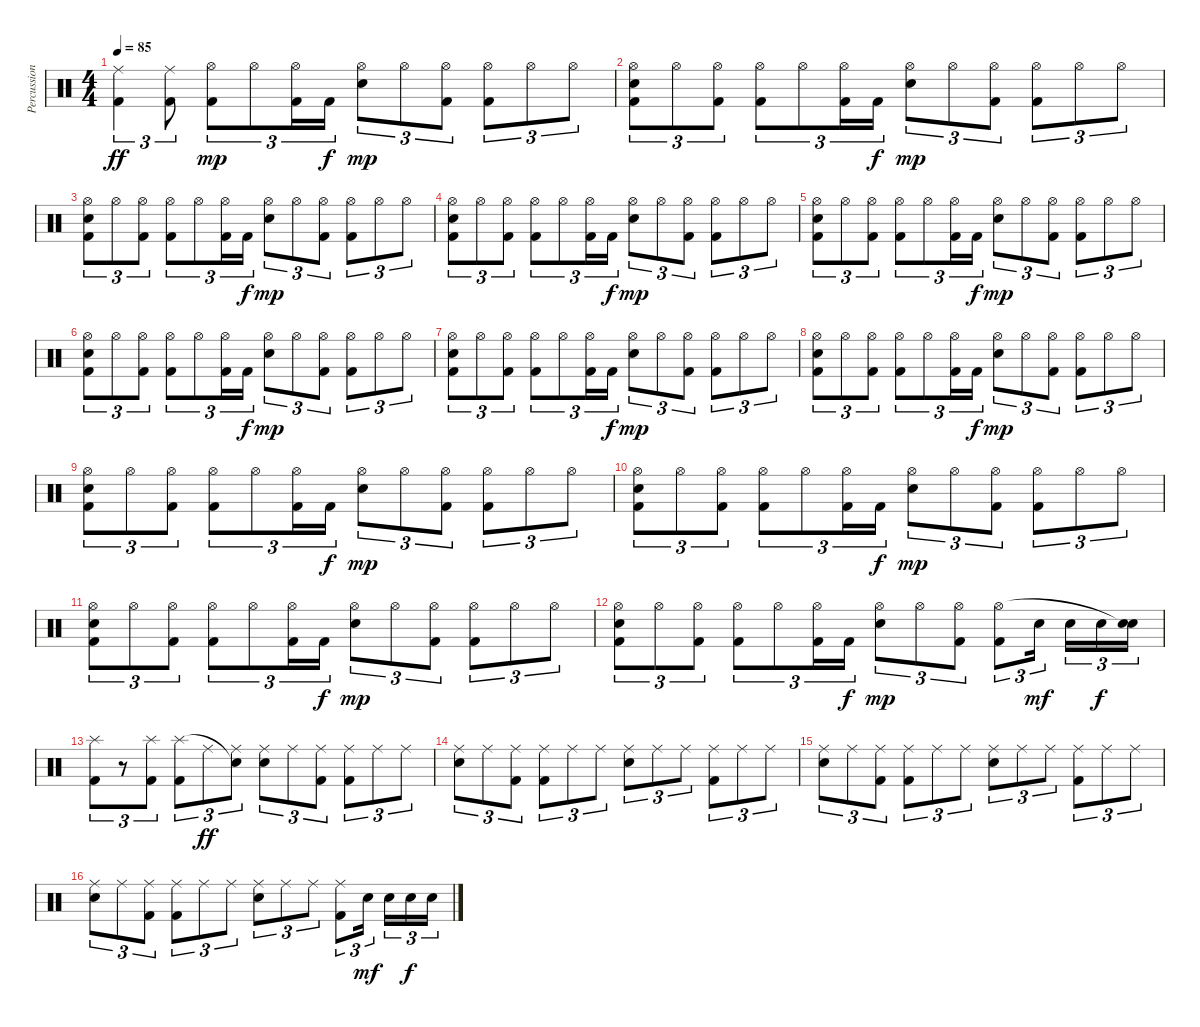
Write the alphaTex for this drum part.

\track ("Percussioni" "Percussion") {instrument percussion}
\staff {score}
\articulation defaults
\ts (4 4)
\tempo 85
\clef neutral
\ks c
("Kick (hit) 2" "Ride (middle)").4{tu (3 2) dy ff} ("Kick (hit) 2" "Ride (middle)").8{tu (3 2)} ("Kick (hit) 2" "Hi-Hat (open)").8{tu (3 2) dy mp} "Hi-Hat (open)".8{tu (3 2)} ("Kick (hit) 2" "Hi-Hat (open)").16{tu (3 2)} "Kick (hit) 2".16{tu (3 2) dy f} ("Snare (hit) 2" "Hi-Hat (open)").8{tu (3 2) dy mp} "Hi-Hat (open)".8{tu (3 2)} ("Kick (hit) 2" "Hi-Hat (open)").8{tu (3 2)} ("Kick (hit) 2" "Hi-Hat (open)").8{tu (3 2)} "Hi-Hat (open)".8{tu (3 2)} "Hi-Hat (open)".8{tu (3 2)} |
("Kick (hit) 2" "Snare (hit) 2" "Hi-Hat (open)").8{tu (3 2)} "Hi-Hat (open)".8{tu (3 2)} ("Kick (hit) 2" "Hi-Hat (open)").8{tu (3 2)} ("Kick (hit) 2" "Hi-Hat (open)").8{tu (3 2)} "Hi-Hat (open)".8{tu (3 2)} ("Kick (hit) 2" "Hi-Hat (open)").16{tu (3 2)} "Kick (hit) 2".16{tu (3 2) dy f} ("Snare (hit) 2" "Hi-Hat (open)").8{tu (3 2) dy mp} "Hi-Hat (open)".8{tu (3 2)} ("Kick (hit) 2" "Hi-Hat (open)").8{tu (3 2)} ("Kick (hit) 2" "Hi-Hat (open)").8{tu (3 2)} "Hi-Hat (open)".8{tu (3 2)} "Hi-Hat (open)".8{tu (3 2)} |
("Kick (hit) 2" "Snare (hit) 2" "Hi-Hat (open)").8{tu (3 2)} "Hi-Hat (open)".8{tu (3 2)} ("Kick (hit) 2" "Hi-Hat (open)").8{tu (3 2)} ("Kick (hit) 2" "Hi-Hat (open)").8{tu (3 2)} "Hi-Hat (open)".8{tu (3 2)} ("Kick (hit) 2" "Hi-Hat (open)").16{tu (3 2)} "Kick (hit) 2".16{tu (3 2) dy f} ("Snare (hit) 2" "Hi-Hat (open)").8{tu (3 2) dy mp} "Hi-Hat (open)".8{tu (3 2)} ("Kick (hit) 2" "Hi-Hat (open)").8{tu (3 2)} ("Kick (hit) 2" "Hi-Hat (open)").8{tu (3 2)} "Hi-Hat (open)".8{tu (3 2)} "Hi-Hat (open)".8{tu (3 2)} |
("Kick (hit) 2" "Snare (hit) 2" "Hi-Hat (open)").8{tu (3 2)} "Hi-Hat (open)".8{tu (3 2)} ("Kick (hit) 2" "Hi-Hat (open)").8{tu (3 2)} ("Kick (hit) 2" "Hi-Hat (open)").8{tu (3 2)} "Hi-Hat (open)".8{tu (3 2)} ("Kick (hit) 2" "Hi-Hat (open)").16{tu (3 2)} "Kick (hit) 2".16{tu (3 2) dy f} ("Snare (hit) 2" "Hi-Hat (open)").8{tu (3 2) dy mp} "Hi-Hat (open)".8{tu (3 2)} ("Kick (hit) 2" "Hi-Hat (open)").8{tu (3 2)} ("Kick (hit) 2" "Hi-Hat (open)").8{tu (3 2)} "Hi-Hat (open)".8{tu (3 2)} "Hi-Hat (open)".8{tu (3 2)} |
("Kick (hit) 2" "Snare (hit) 2" "Hi-Hat (open)").8{tu (3 2)} "Hi-Hat (open)".8{tu (3 2)} ("Kick (hit) 2" "Hi-Hat (open)").8{tu (3 2)} ("Kick (hit) 2" "Hi-Hat (open)").8{tu (3 2)} "Hi-Hat (open)".8{tu (3 2)} ("Kick (hit) 2" "Hi-Hat (open)").16{tu (3 2)} "Kick (hit) 2".16{tu (3 2) dy f} ("Snare (hit) 2" "Hi-Hat (open)").8{tu (3 2) dy mp} "Hi-Hat (open)".8{tu (3 2)} ("Kick (hit) 2" "Hi-Hat (open)").8{tu (3 2)} ("Kick (hit) 2" "Hi-Hat (open)").8{tu (3 2)} "Hi-Hat (open)".8{tu (3 2)} "Hi-Hat (open)".8{tu (3 2)} |
("Kick (hit) 2" "Snare (hit) 2" "Hi-Hat (open)").8{tu (3 2)} "Hi-Hat (open)".8{tu (3 2)} ("Kick (hit) 2" "Hi-Hat (open)").8{tu (3 2)} ("Kick (hit) 2" "Hi-Hat (open)").8{tu (3 2)} "Hi-Hat (open)".8{tu (3 2)} ("Kick (hit) 2" "Hi-Hat (open)").16{tu (3 2)} "Kick (hit) 2".16{tu (3 2) dy f} ("Snare (hit) 2" "Hi-Hat (open)").8{tu (3 2) dy mp} "Hi-Hat (open)".8{tu (3 2)} ("Kick (hit) 2" "Hi-Hat (open)").8{tu (3 2)} ("Kick (hit) 2" "Hi-Hat (open)").8{tu (3 2)} "Hi-Hat (open)".8{tu (3 2)} "Hi-Hat (open)".8{tu (3 2)} |
("Kick (hit) 2" "Snare (hit) 2" "Hi-Hat (open)").8{tu (3 2)} "Hi-Hat (open)".8{tu (3 2)} ("Kick (hit) 2" "Hi-Hat (open)").8{tu (3 2)} ("Kick (hit) 2" "Hi-Hat (open)").8{tu (3 2)} "Hi-Hat (open)".8{tu (3 2)} ("Kick (hit) 2" "Hi-Hat (open)").16{tu (3 2)} "Kick (hit) 2".16{tu (3 2) dy f} ("Snare (hit) 2" "Hi-Hat (open)").8{tu (3 2) dy mp} "Hi-Hat (open)".8{tu (3 2)} ("Kick (hit) 2" "Hi-Hat (open)").8{tu (3 2)} ("Kick (hit) 2" "Hi-Hat (open)").8{tu (3 2)} "Hi-Hat (open)".8{tu (3 2)} "Hi-Hat (open)".8{tu (3 2)} |
("Kick (hit) 2" "Snare (hit) 2" "Hi-Hat (open)").8{tu (3 2)} "Hi-Hat (open)".8{tu (3 2)} ("Kick (hit) 2" "Hi-Hat (open)").8{tu (3 2)} ("Kick (hit) 2" "Hi-Hat (open)").8{tu (3 2)} "Hi-Hat (open)".8{tu (3 2)} ("Kick (hit) 2" "Hi-Hat (open)").16{tu (3 2)} "Kick (hit) 2".16{tu (3 2) dy f} ("Snare (hit) 2" "Hi-Hat (open)").8{tu (3 2) dy mp} "Hi-Hat (open)".8{tu (3 2)} ("Kick (hit) 2" "Hi-Hat (open)").8{tu (3 2)} ("Kick (hit) 2" "Hi-Hat (open)").8{tu (3 2)} "Hi-Hat (open)".8{tu (3 2)} "Hi-Hat (open)".8{tu (3 2)} |
("Kick (hit) 2" "Snare (hit) 2" "Hi-Hat (open)").8{tu (3 2)} "Hi-Hat (open)".8{tu (3 2)} ("Kick (hit) 2" "Hi-Hat (open)").8{tu (3 2)} ("Kick (hit) 2" "Hi-Hat (open)").8{tu (3 2)} "Hi-Hat (open)".8{tu (3 2)} ("Kick (hit) 2" "Hi-Hat (open)").16{tu (3 2)} "Kick (hit) 2".16{tu (3 2) dy f} ("Snare (hit) 2" "Hi-Hat (open)").8{tu (3 2) dy mp} "Hi-Hat (open)".8{tu (3 2)} ("Kick (hit) 2" "Hi-Hat (open)").8{tu (3 2)} ("Kick (hit) 2" "Hi-Hat (open)").8{tu (3 2)} "Hi-Hat (open)".8{tu (3 2)} "Hi-Hat (open)".8{tu (3 2)} |
("Kick (hit) 2" "Snare (hit) 2" "Hi-Hat (open)").8{tu (3 2)} "Hi-Hat (open)".8{tu (3 2)} ("Kick (hit) 2" "Hi-Hat (open)").8{tu (3 2)} ("Kick (hit) 2" "Hi-Hat (open)").8{tu (3 2)} "Hi-Hat (open)".8{tu (3 2)} ("Kick (hit) 2" "Hi-Hat (open)").16{tu (3 2)} "Kick (hit) 2".16{tu (3 2) dy f} ("Snare (hit) 2" "Hi-Hat (open)").8{tu (3 2) dy mp} "Hi-Hat (open)".8{tu (3 2)} ("Kick (hit) 2" "Hi-Hat (open)").8{tu (3 2)} ("Kick (hit) 2" "Hi-Hat (open)").8{tu (3 2)} "Hi-Hat (open)".8{tu (3 2)} "Hi-Hat (open)".8{tu (3 2)} |
("Kick (hit) 2" "Snare (hit) 2" "Hi-Hat (open)").8{tu (3 2)} "Hi-Hat (open)".8{tu (3 2)} ("Kick (hit) 2" "Hi-Hat (open)").8{tu (3 2)} ("Kick (hit) 2" "Hi-Hat (open)").8{tu (3 2)} "Hi-Hat (open)".8{tu (3 2)} ("Kick (hit) 2" "Hi-Hat (open)").16{tu (3 2)} "Kick (hit) 2".16{tu (3 2) dy f} ("Snare (hit) 2" "Hi-Hat (open)").8{tu (3 2) dy mp} "Hi-Hat (open)".8{tu (3 2)} ("Kick (hit) 2" "Hi-Hat (open)").8{tu (3 2)} ("Kick (hit) 2" "Hi-Hat (open)").8{tu (3 2)} "Hi-Hat (open)".8{tu (3 2)} "Hi-Hat (open)".8{tu (3 2)} |
("Kick (hit) 2" "Snare (hit) 2" "Hi-Hat (open)").8{tu (3 2)} "Hi-Hat (open)".8{tu (3 2)} ("Kick (hit) 2" "Hi-Hat (open)").8{tu (3 2)} ("Kick (hit) 2" "Hi-Hat (open)").8{tu (3 2)} "Hi-Hat (open)".8{tu (3 2)} ("Kick (hit) 2" "Hi-Hat (open)").16{tu (3 2)} "Kick (hit) 2".16{tu (3 2) dy f} ("Snare (hit) 2" "Hi-Hat (open)").8{tu (3 2) dy mp} "Hi-Hat (open)".8{tu (3 2)} ("Kick (hit) 2" "Hi-Hat (open)").8{tu (3 2)} ("Kick (hit) 2" "Hi-Hat (open)").8{tu (3 2)} "Snare (hit) 2".16{tu (3 2) dy mf} "Snare (hit) 2".16{tu (3 2)} "Snare (hit) 2".16{tu (3 2) dy f} ("Snare (hit) 2" "Snare (hit)"{t}).16{tu (3 2)} |
("Kick (hit) 2" "Splash (hit)").8{tu (3 2)} r.8{tu (3 2)} ("Kick (hit) 2" "Splash (hit)").8{tu (3 2)} ("Kick (hit) 2" "Splash (hit)").8{tu (3 2)} "Ride (middle)".8{tu (3 2) dy ff} ("Ride (middle)" "Snare (hit)"{t}).8{tu (3 2)} ("Snare (hit) 2" "Ride (middle)").8{tu (3 2)} "Ride (middle)".8{tu (3 2)} ("Kick (hit) 2" "Ride (middle)").8{tu (3 2)} ("Kick (hit) 2" "Ride (middle)").8{tu (3 2)} "Ride (middle)".8{tu (3 2)} "Ride (middle)".8{tu (3 2)} |
("Snare (hit) 2" "Ride (middle)").8{tu (3 2)} "Ride (middle)".8{tu (3 2)} ("Kick (hit) 2" "Ride (middle)").8{tu (3 2)} ("Kick (hit) 2" "Ride (middle)").8{tu (3 2)} "Ride (middle)".8{tu (3 2)} "Ride (middle)".8{tu (3 2)} ("Snare (hit) 2" "Ride (middle)").8{tu (3 2)} "Ride (middle)".8{tu (3 2)} "Ride (middle)".8{tu (3 2)} ("Kick (hit) 2" "Ride (middle)").8{tu (3 2)} "Ride (middle)".8{tu (3 2)} "Ride (middle)".8{tu (3 2)} |
("Snare (hit) 2" "Ride (middle)").8{tu (3 2)} "Ride (middle)".8{tu (3 2)} ("Kick (hit) 2" "Ride (middle)").8{tu (3 2)} ("Kick (hit) 2" "Ride (middle)").8{tu (3 2)} "Ride (middle)".8{tu (3 2)} "Ride (middle)".8{tu (3 2)} ("Snare (hit) 2" "Ride (middle)").8{tu (3 2)} "Ride (middle)".8{tu (3 2)} "Ride (middle)".8{tu (3 2)} ("Kick (hit) 2" "Ride (middle)").8{tu (3 2)} "Ride (middle)".8{tu (3 2)} "Ride (middle)".8{tu (3 2)} |
("Snare (hit) 2" "Ride (middle)").8{tu (3 2)} "Ride (middle)".8{tu (3 2)} ("Kick (hit) 2" "Ride (middle)").8{tu (3 2)} ("Kick (hit) 2" "Ride (middle)").8{tu (3 2)} "Ride (middle)".8{tu (3 2)} "Ride (middle)".8{tu (3 2)} ("Snare (hit) 2" "Ride (middle)").8{tu (3 2)} "Ride (middle)".8{tu (3 2)} "Ride (middle)".8{tu (3 2)} ("Kick (hit) 2" "Ride (middle)").8{tu (3 2)} "Snare (hit) 2".16{tu (3 2) dy mf} "Snare (hit) 2".16{tu (3 2)} "Snare (hit) 2".16{tu (3 2) dy f} "Snare (hit) 2".16{tu (3 2)}
